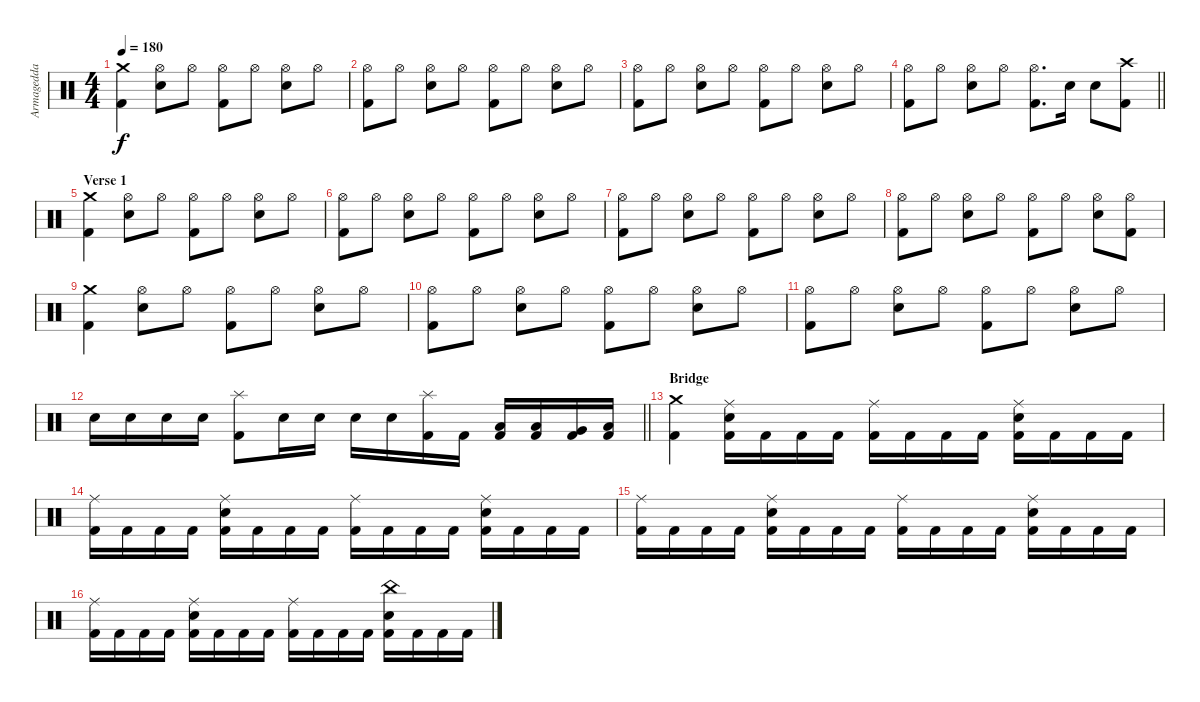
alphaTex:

\track ("Armagedda" "Armagedda") {instrument percussion}
\staff {score}
\articulation defaults
\ts (4 4)
\tempo 180
\clef neutral
\ks c
("Crash medium (hit)" "Kick (hit) 2").4{dy f} ("Hi-Hat (open)" "Electric Snare (hit)").8 "Hi-Hat (open)".8 ("Hi-Hat (open)" "Kick (hit) 2").8 "Hi-Hat (open)".8 ("Hi-Hat (open)" "Electric Snare (hit)").8 "Hi-Hat (open)".8 |
("Hi-Hat (open)" "Kick (hit) 2").8 "Hi-Hat (open)".8 ("Hi-Hat (open)" "Electric Snare (hit)").8 "Hi-Hat (open)".8 ("Hi-Hat (open)" "Kick (hit) 2").8 "Hi-Hat (open)".8 ("Hi-Hat (open)" "Electric Snare (hit)").8 "Hi-Hat (open)".8 |
("Hi-Hat (open)" "Kick (hit) 2").8 "Hi-Hat (open)".8 ("Hi-Hat (open)" "Electric Snare (hit)").8 "Hi-Hat (open)".8 ("Hi-Hat (open)" "Kick (hit) 2").8 "Hi-Hat (open)".8 ("Hi-Hat (open)" "Electric Snare (hit)").8 "Hi-Hat (open)".8 |
\barLineRight lightlight
("Hi-Hat (open)" "Kick (hit) 2").8 "Hi-Hat (open)".8 ("Hi-Hat (open)" "Electric Snare (hit)").8 "Hi-Hat (open)".8 ("Hi-Hat (open)" "Kick (hit) 2").8{d} "Electric Snare (hit)".16 "Electric Snare (hit)".8 ("Crash high (hit)" "Kick (hit) 2").8 |
\section ("" "Verse 1")
("Crash medium (hit)" "Kick (hit) 2").4 ("Hi-Hat (open)" "Electric Snare (hit)").8 "Hi-Hat (open)".8 ("Hi-Hat (open)" "Kick (hit) 2").8 "Hi-Hat (open)".8 ("Hi-Hat (open)" "Electric Snare (hit)").8 "Hi-Hat (open)".8 |
("Hi-Hat (open)" "Kick (hit) 2").8 "Hi-Hat (open)".8 ("Hi-Hat (open)" "Electric Snare (hit)").8 "Hi-Hat (open)".8 ("Hi-Hat (open)" "Kick (hit) 2").8 "Hi-Hat (open)".8 ("Hi-Hat (open)" "Electric Snare (hit)").8 "Hi-Hat (open)".8 |
("Hi-Hat (open)" "Kick (hit) 2").8 "Hi-Hat (open)".8 ("Hi-Hat (open)" "Electric Snare (hit)").8 "Hi-Hat (open)".8 ("Hi-Hat (open)" "Kick (hit) 2").8 "Hi-Hat (open)".8 ("Hi-Hat (open)" "Electric Snare (hit)").8 "Hi-Hat (open)".8 |
("Hi-Hat (open)" "Kick (hit) 2").8 "Hi-Hat (open)".8 ("Hi-Hat (open)" "Electric Snare (hit)").8 "Hi-Hat (open)".8 ("Hi-Hat (open)" "Kick (hit) 2").8 "Hi-Hat (open)".8 ("Hi-Hat (open)" "Electric Snare (hit)").8 ("Hi-Hat (open)" "Kick (hit) 2").8 |
("Crash medium (hit)" "Kick (hit) 2").4 ("Hi-Hat (open)" "Electric Snare (hit)").8 "Hi-Hat (open)".8 ("Hi-Hat (open)" "Kick (hit) 2").8 "Hi-Hat (open)".8 ("Hi-Hat (open)" "Electric Snare (hit)").8 "Hi-Hat (open)".8 |
("Hi-Hat (open)" "Kick (hit) 2").8 "Hi-Hat (open)".8 ("Hi-Hat (open)" "Electric Snare (hit)").8 "Hi-Hat (open)".8 ("Hi-Hat (open)" "Kick (hit) 2").8 "Hi-Hat (open)".8 ("Hi-Hat (open)" "Electric Snare (hit)").8 "Hi-Hat (open)".8 |
("Hi-Hat (open)" "Kick (hit) 2").8 "Hi-Hat (open)".8 ("Hi-Hat (open)" "Electric Snare (hit)").8 "Hi-Hat (open)".8 ("Hi-Hat (open)" "Kick (hit) 2").8 "Hi-Hat (open)".8 ("Hi-Hat (open)" "Electric Snare (hit)").8 "Hi-Hat (open)".8 |
\barLineRight lightlight "Electric Snare (hit)".16 "Electric Snare (hit)".16 "Electric Snare (hit)".16 "Electric Snare (hit)".16
("Splash (hit)" "Kick (hit) 2").8 "Electric Snare (hit)".16 "Electric Snare (hit)".16 "Electric Snare (hit)".16 "Electric Snare (hit)".16 ("Splash (hit)" "Kick (hit) 2").16 "Kick (hit) 2".16 ("Low Tom (hit)" "Kick (hit) 2").16 ("Low Tom (hit)" "Kick (hit) 2").16 ("Very Low Tom (hit)" "Kick (hit) 2").16 ("Low Floor Tom (hit)" "Kick (hit) 2").16 |
\section ("" "Bridge")
("Crash medium (hit)" "Kick (hit) 2").4 ("Ride (middle)" "Electric Snare (hit)" "Kick (hit) 2").16 "Kick (hit) 2".16 "Kick (hit) 2".16 "Kick (hit) 2".16 ("Ride (middle)" "Kick (hit) 2").16 "Kick (hit) 2".16 "Kick (hit) 2".16 "Kick (hit) 2".16 ("Ride (middle)" "Electric Snare (hit)" "Kick (hit) 2").16 "Kick (hit) 2".16 "Kick (hit) 2".16 "Kick (hit) 2".16 |
("Ride (middle)" "Kick (hit) 2").16 "Kick (hit) 2".16 "Kick (hit) 2".16 "Kick (hit) 2".16 ("Ride (middle)" "Electric Snare (hit)" "Kick (hit) 2").16 "Kick (hit) 2".16 "Kick (hit) 2".16 "Kick (hit) 2".16 ("Ride (middle)" "Kick (hit) 2").16 "Kick (hit) 2".16 "Kick (hit) 2".16 "Kick (hit) 2".16 ("Ride (middle)" "Electric Snare (hit)" "Kick (hit) 2").16 "Kick (hit) 2".16 "Kick (hit) 2".16 "Kick (hit) 2".16 |
("Ride (middle)" "Kick (hit) 2").16 "Kick (hit) 2".16 "Kick (hit) 2".16 "Kick (hit) 2".16 ("Ride (middle)" "Electric Snare (hit)" "Kick (hit) 2").16 "Kick (hit) 2".16 "Kick (hit) 2".16 "Kick (hit) 2".16 ("Ride (middle)" "Kick (hit) 2").16 "Kick (hit) 2".16 "Kick (hit) 2".16 "Kick (hit) 2".16 ("Ride (middle)" "Electric Snare (hit)" "Kick (hit) 2").16 "Kick (hit) 2".16 "Kick (hit) 2".16 "Kick (hit) 2".16 |
("Ride (middle)" "Kick (hit) 2").16 "Kick (hit) 2".16 "Kick (hit) 2".16 "Kick (hit) 2".16 ("Ride (middle)" "Electric Snare (hit)" "Kick (hit) 2").16 "Kick (hit) 2".16 "Kick (hit) 2".16 "Kick (hit) 2".16 ("Ride (middle)" "Kick (hit) 2").16 "Kick (hit) 2".16 "Kick (hit) 2".16 "Kick (hit) 2".16 ("China (hit)" "Electric Snare (hit)" "Kick (hit) 2").16 "Kick (hit) 2".16 "Kick (hit) 2".16 "Kick (hit) 2".16
